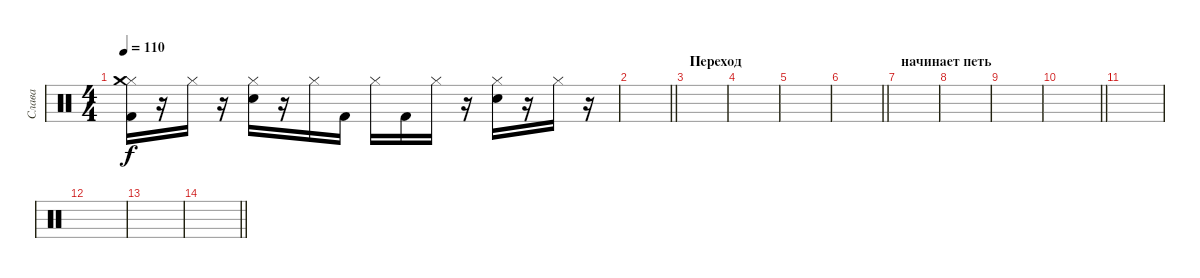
\track ("Слава" "Слава") {instrument percussion}
\staff {score}
\articulation defaults
\ts (4 4)
\tempo 110
\clef neutral
\ks c
("Hi-Hat (closed)" "Crash medium (hit)" "Kick (hit) 2").16{dy f} r.16 "Hi-Hat (closed)".16 r.16 ("Hi-Hat (closed)" "Electric Snare (hit)").16 r.16 "Hi-Hat (closed)".16 "Kick (hit) 2".16 "Hi-Hat (closed)".16 "Kick (hit) 2".16 "Hi-Hat (closed)".16 r.16 ("Hi-Hat (closed)" "Electric Snare (hit)").16 r.16 "Hi-Hat (closed)".16 r.16 |
\barLineRight lightlight
|
\section ("" "Переход")
|
|
|
\barLineRight lightlight
|
\section ("" "начинает петь")
|
|
|
\barLineRight lightlight
|
|
|
|
\barLineRight lightlight
